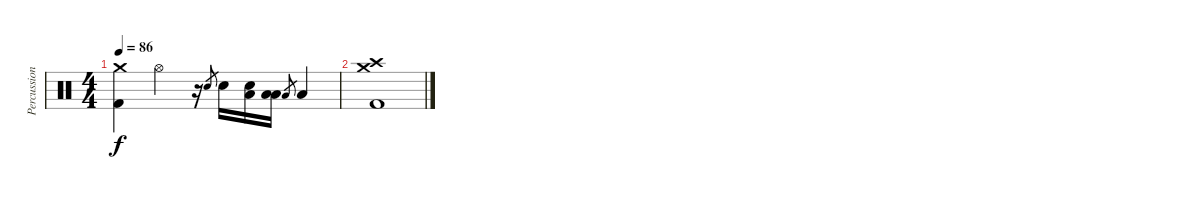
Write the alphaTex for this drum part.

\track ("Percussion" "Percussion") {instrument percussion}
\staff {score}
\articulation defaults
\ts (4 4)
\tempo 86
\clef neutral
\ks c
("Crash medium (hit)" "Kick (hit) 2").4{dy f} "Hi-Hat (open)".4 r.16 "Electric Snare (hit)".8{gr} "Electric Snare (hit)".16 ("Low Tom (hit)" "Electric Snare (hit)").16 ("Low Tom (hit)" "Low Floor Tom (hit)").16 "Low Floor Tom (hit)".8{gr} "Low Floor Tom (hit)".4 |
("Crash medium (hit)" "Crash high (hit)" "Kick (hit) 2").1
